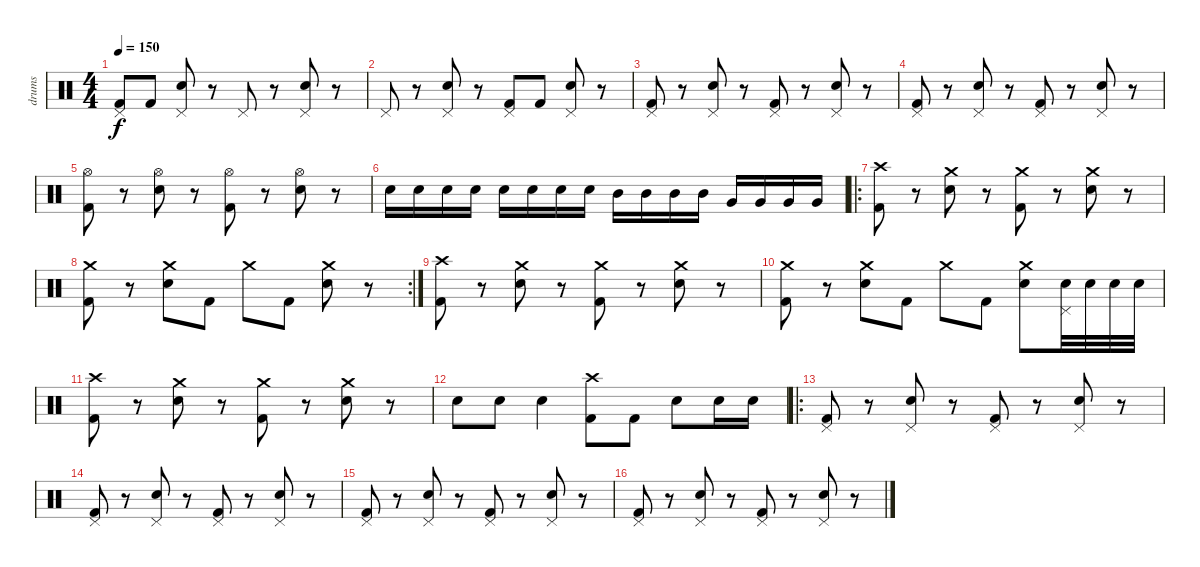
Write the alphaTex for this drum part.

\track ("drums" "drums") {instrument percussion}
\staff {score}
\articulation defaults
\ts (4 4)
\tempo 150
\clef neutral
\ks c
("Pedal Hi-Hat (hit)" "Kick (hit) 2").8{dy f} "Kick (hit) 2".8 ("Pedal Hi-Hat (hit)" "Snare (hit) 2").8 r.8 "Pedal Hi-Hat (hit)".8 r.8 ("Pedal Hi-Hat (hit)" "Snare (hit) 2").8 r.8 |
"Pedal Hi-Hat (hit)".8 r.8 ("Pedal Hi-Hat (hit)" "Snare (hit) 2").8 r.8 ("Pedal Hi-Hat (hit)" "Kick (hit) 2").8 "Kick (hit) 2".8 ("Pedal Hi-Hat (hit)" "Snare (hit) 2").8 r.8 |
("Pedal Hi-Hat (hit)" "Kick (hit) 2").8 r.8 ("Pedal Hi-Hat (hit)" "Snare (hit) 2").8 r.8 ("Pedal Hi-Hat (hit)" "Kick (hit) 2").8 r.8 ("Pedal Hi-Hat (hit)" "Snare (hit) 2").8 r.8 |
("Pedal Hi-Hat (hit)" "Kick (hit) 2").8 r.8 ("Pedal Hi-Hat (hit)" "Snare (hit) 2").8 r.8 ("Pedal Hi-Hat (hit)" "Kick (hit) 2").8 r.8 ("Pedal Hi-Hat (hit)" "Snare (hit) 2").8 r.8 |
("Hi-Hat (open)" "Kick (hit) 2").8 r.8 ("Hi-Hat (open)" "Snare (hit) 2").8 r.8 ("Hi-Hat (open)" "Kick (hit) 2").8 r.8 ("Hi-Hat (open)" "Snare (hit) 2").8 r.8 |
"Snare (hit) 2".16 "Snare (hit) 2".16 "Snare (hit) 2".16 "Snare (hit) 2".16 "Snare (hit) 2".16 "Snare (hit) 2".16 "Snare (hit) 2".16 "Snare (hit) 2".16 "Mid Tom (hit)".16 "Mid Tom (hit)".16 "Mid Tom (hit)".16 "Mid Tom (hit)".16 "Very Low Tom (hit)".16 "Very Low Tom (hit)".16 "Very Low Tom (hit)".16 "Very Low Tom (hit)".16 |
\ro
("Crash high (hit)" "Kick (hit) 2").8 r.8 ("Crash medium (hit)" "Snare (hit) 2").8 r.8 ("Crash medium (hit)" "Kick (hit) 2").8 r.8 ("Crash medium (hit)" "Snare (hit) 2").8 r.8 |
\rc 2
("Crash medium (hit)" "Kick (hit) 2").8 r.8 ("Crash medium (hit)" "Snare (hit) 2").8 "Kick (hit) 2".8 "Crash medium (hit)".8 "Kick (hit) 2".8 ("Crash medium (hit)" "Snare (hit) 2").8 r.8 |
("Crash high (hit)" "Kick (hit) 2").8 r.8 ("Crash medium (hit)" "Snare (hit) 2").8 r.8 ("Crash medium (hit)" "Kick (hit) 2").8 r.8 ("Crash medium (hit)" "Snare (hit) 2").8 r.8 |
("Crash medium (hit)" "Kick (hit) 2").8 r.8 ("Crash medium (hit)" "Snare (hit) 2").8 "Kick (hit) 2".8 "Crash medium (hit)".8 "Kick (hit) 2".8 ("Crash medium (hit)" "Snare (hit) 2").8 ("Pedal Hi-Hat (hit)" "Snare (hit) 2").32 "Snare (hit) 2".32 "Snare (hit) 2".32 "Snare (hit) 2".32 |
("Crash high (hit)" "Kick (hit) 2").8 r.8 ("Crash medium (hit)" "Snare (hit) 2").8 r.8 ("Crash medium (hit)" "Kick (hit) 2").8 r.8 ("Crash medium (hit)" "Snare (hit) 2").8 r.8 |
"Snare (hit) 2".8 "Snare (hit) 2".8 "Snare (hit) 2".4 ("Crash high (hit)" "Kick (hit) 2").8 "Kick (hit) 2".8 "Snare (hit) 2".8 "Snare (hit) 2".16 "Snare (hit) 2".16 |
\ro
("Pedal Hi-Hat (hit)" "Kick (hit) 2").8 r.8 ("Pedal Hi-Hat (hit)" "Snare (hit) 2").8 r.8 ("Pedal Hi-Hat (hit)" "Kick (hit) 2").8 r.8 ("Pedal Hi-Hat (hit)" "Snare (hit) 2").8 r.8 |
("Pedal Hi-Hat (hit)" "Kick (hit) 2").8 r.8 ("Pedal Hi-Hat (hit)" "Snare (hit) 2").8 r.8 ("Pedal Hi-Hat (hit)" "Kick (hit) 2").8 r.8 ("Pedal Hi-Hat (hit)" "Snare (hit) 2").8 r.8 |
("Pedal Hi-Hat (hit)" "Kick (hit) 2").8 r.8 ("Pedal Hi-Hat (hit)" "Snare (hit) 2").8 r.8 ("Pedal Hi-Hat (hit)" "Kick (hit) 2").8 r.8 ("Pedal Hi-Hat (hit)" "Snare (hit) 2").8 r.8 |
("Pedal Hi-Hat (hit)" "Kick (hit) 2").8 r.8 ("Pedal Hi-Hat (hit)" "Snare (hit) 2").8 r.8 ("Pedal Hi-Hat (hit)" "Kick (hit) 2").8 r.8 ("Pedal Hi-Hat (hit)" "Snare (hit) 2").8 r.8
